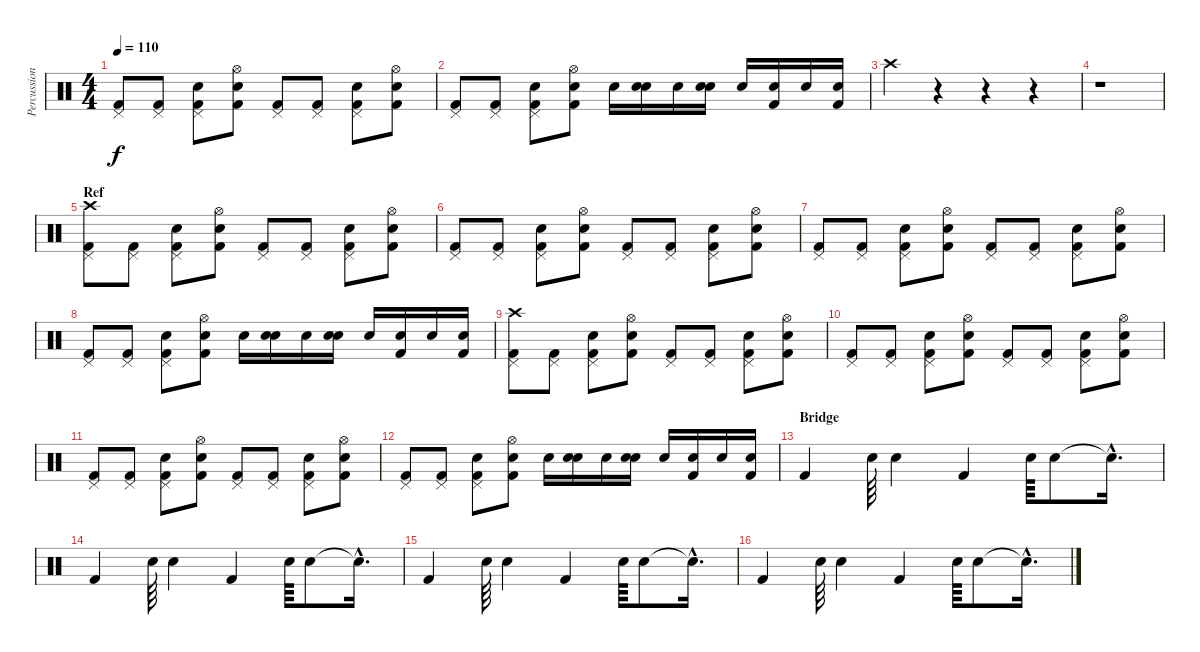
\track ("Percussion" "Percussion") {instrument percussion}
\staff {score}
\articulation defaults
\ts (4 4)
\tempo 110
\clef neutral
\ks c
("Pedal Hi-Hat (hit)" "Kick (hit) 2").8{dy f} ("Pedal Hi-Hat (hit)" "Kick (hit) 2").8 ("Pedal Hi-Hat (hit)" "Snare (hit) 2" "Kick (hit) 2").8 ("Hi-Hat (open)" "Snare (hit) 2" "Kick (hit) 2").8 ("Pedal Hi-Hat (hit)" "Kick (hit) 2").8 ("Pedal Hi-Hat (hit)" "Kick (hit) 2").8 ("Pedal Hi-Hat (hit)" "Snare (hit) 2" "Kick (hit) 2").8 ("Hi-Hat (open)" "Snare (hit) 2" "Kick (hit) 2").8 |
("Pedal Hi-Hat (hit)" "Kick (hit) 2").8 ("Pedal Hi-Hat (hit)" "Kick (hit) 2").8 ("Pedal Hi-Hat (hit)" "Snare (hit) 2" "Kick (hit) 2").8 ("Hi-Hat (open)" "Snare (hit) 2" "Kick (hit) 2").8 "Snare (hit) 2".16 ("Electric Snare (hit)" "Snare (hit) 2").16 "Snare (hit) 2".16 ("Electric Snare (hit)" "Snare (hit) 2").16 "Snare (hit) 2".16 ("Kick (hit) 2" "Snare (hit) 2").16 "Snare (hit) 2".16 ("Kick (hit) 2" "Snare (hit) 2").16 |
"Crash high (hit)".4 r.4 r.4 r.4 |
r.1 |
\section ("" "Ref")
("Pedal Hi-Hat (hit)" "Crash high (hit)" "Kick (hit) 2").8 ("Pedal Hi-Hat (hit)" "Kick (hit) 2").8 ("Pedal Hi-Hat (hit)" "Snare (hit) 2" "Kick (hit) 2").8 ("Hi-Hat (open)" "Snare (hit) 2" "Kick (hit) 2").8 ("Pedal Hi-Hat (hit)" "Kick (hit) 2").8 ("Pedal Hi-Hat (hit)" "Kick (hit) 2").8 ("Pedal Hi-Hat (hit)" "Snare (hit) 2" "Kick (hit) 2").8 ("Hi-Hat (open)" "Snare (hit) 2" "Kick (hit) 2").8 |
("Pedal Hi-Hat (hit)" "Kick (hit) 2").8 ("Pedal Hi-Hat (hit)" "Kick (hit) 2").8 ("Pedal Hi-Hat (hit)" "Snare (hit) 2" "Kick (hit) 2").8 ("Hi-Hat (open)" "Snare (hit) 2" "Kick (hit) 2").8 ("Pedal Hi-Hat (hit)" "Kick (hit) 2").8 ("Pedal Hi-Hat (hit)" "Kick (hit) 2").8 ("Pedal Hi-Hat (hit)" "Snare (hit) 2" "Kick (hit) 2").8 ("Hi-Hat (open)" "Snare (hit) 2" "Kick (hit) 2").8 |
("Pedal Hi-Hat (hit)" "Kick (hit) 2").8 ("Pedal Hi-Hat (hit)" "Kick (hit) 2").8 ("Pedal Hi-Hat (hit)" "Snare (hit) 2" "Kick (hit) 2").8 ("Hi-Hat (open)" "Snare (hit) 2" "Kick (hit) 2").8 ("Pedal Hi-Hat (hit)" "Kick (hit) 2").8 ("Pedal Hi-Hat (hit)" "Kick (hit) 2").8 ("Pedal Hi-Hat (hit)" "Snare (hit) 2" "Kick (hit) 2").8 ("Hi-Hat (open)" "Snare (hit) 2" "Kick (hit) 2").8 |
("Pedal Hi-Hat (hit)" "Kick (hit) 2").8 ("Pedal Hi-Hat (hit)" "Kick (hit) 2").8 ("Pedal Hi-Hat (hit)" "Snare (hit) 2" "Kick (hit) 2").8 ("Hi-Hat (open)" "Snare (hit) 2" "Kick (hit) 2").8 "Snare (hit) 2".16 ("Electric Snare (hit)" "Snare (hit) 2").16 "Snare (hit) 2".16 ("Electric Snare (hit)" "Snare (hit) 2").16 "Snare (hit) 2".16 ("Kick (hit) 2" "Snare (hit) 2").16 "Snare (hit) 2".16 ("Kick (hit) 2" "Snare (hit) 2").16 |
("Pedal Hi-Hat (hit)" "Crash high (hit)" "Kick (hit) 2").8 ("Pedal Hi-Hat (hit)" "Kick (hit) 2").8 ("Pedal Hi-Hat (hit)" "Snare (hit) 2" "Kick (hit) 2").8 ("Hi-Hat (open)" "Snare (hit) 2" "Kick (hit) 2").8 ("Pedal Hi-Hat (hit)" "Kick (hit) 2").8 ("Pedal Hi-Hat (hit)" "Kick (hit) 2").8 ("Pedal Hi-Hat (hit)" "Snare (hit) 2" "Kick (hit) 2").8 ("Hi-Hat (open)" "Snare (hit) 2" "Kick (hit) 2").8 |
("Pedal Hi-Hat (hit)" "Kick (hit) 2").8 ("Pedal Hi-Hat (hit)" "Kick (hit) 2").8 ("Pedal Hi-Hat (hit)" "Snare (hit) 2" "Kick (hit) 2").8 ("Hi-Hat (open)" "Snare (hit) 2" "Kick (hit) 2").8 ("Pedal Hi-Hat (hit)" "Kick (hit) 2").8 ("Pedal Hi-Hat (hit)" "Kick (hit) 2").8 ("Pedal Hi-Hat (hit)" "Snare (hit) 2" "Kick (hit) 2").8 ("Hi-Hat (open)" "Snare (hit) 2" "Kick (hit) 2").8 |
("Pedal Hi-Hat (hit)" "Kick (hit) 2").8 ("Pedal Hi-Hat (hit)" "Kick (hit) 2").8 ("Pedal Hi-Hat (hit)" "Snare (hit) 2" "Kick (hit) 2").8 ("Hi-Hat (open)" "Snare (hit) 2" "Kick (hit) 2").8 ("Pedal Hi-Hat (hit)" "Kick (hit) 2").8 ("Pedal Hi-Hat (hit)" "Kick (hit) 2").8 ("Pedal Hi-Hat (hit)" "Snare (hit) 2" "Kick (hit) 2").8 ("Hi-Hat (open)" "Snare (hit) 2" "Kick (hit) 2").8 |
("Pedal Hi-Hat (hit)" "Kick (hit) 2").8 ("Pedal Hi-Hat (hit)" "Kick (hit) 2").8 ("Pedal Hi-Hat (hit)" "Snare (hit) 2" "Kick (hit) 2").8 ("Hi-Hat (open)" "Snare (hit) 2" "Kick (hit) 2").8 "Snare (hit) 2".16 ("Electric Snare (hit)" "Snare (hit) 2").16 "Snare (hit) 2".16 ("Electric Snare (hit)" "Snare (hit) 2").16 "Snare (hit) 2".16 ("Kick (hit) 2" "Snare (hit) 2").16 "Snare (hit) 2".16 ("Kick (hit) 2" "Snare (hit) 2").16 |
\section ("" "Bridge")
"Kick (hit) 2".4 "Snare (hit) 2".64 "Snare (hit) 2".4 "Kick (hit) 2".4 "Snare (hit) 2".64 "Snare (hit) 2".8 "Snare (hit)"{hac t}.16{d} |
"Kick (hit) 2".4 "Snare (hit) 2".64 "Snare (hit) 2".4 "Kick (hit) 2".4 "Snare (hit) 2".64 "Snare (hit) 2".8 "Snare (hit)"{hac t}.16{d} |
"Kick (hit) 2".4 "Snare (hit) 2".64 "Snare (hit) 2".4 "Kick (hit) 2".4 "Snare (hit) 2".64 "Snare (hit) 2".8 "Snare (hit)"{hac t}.16{d} |
"Kick (hit) 2".4 "Snare (hit) 2".64 "Snare (hit) 2".4 "Kick (hit) 2".4 "Snare (hit) 2".64 "Snare (hit) 2".8 "Snare (hit)"{hac t}.16{d}
